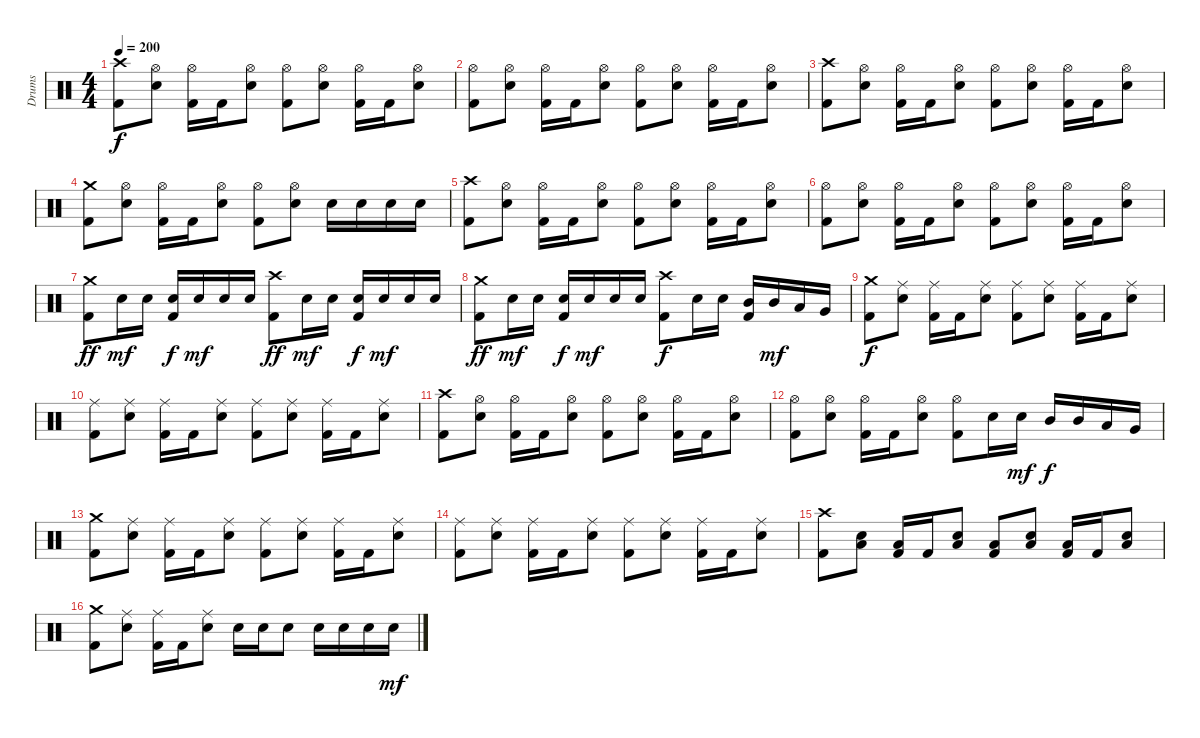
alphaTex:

\track ("Drums" "Drums") {instrument percussion}
\staff {score}
\articulation defaults
\ts (4 4)
\tempo 200
\clef neutral
\ks c
("Crash high (hit)" "Kick (hit) 2").8{dy f} ("Hi-Hat (open)" "Electric Snare (hit)").8 ("Hi-Hat (open)" "Kick (hit) 2").16 "Kick (hit) 2".16 ("Hi-Hat (open)" "Electric Snare (hit)").8 ("Hi-Hat (open)" "Kick (hit) 2").8 ("Hi-Hat (open)" "Electric Snare (hit)").8 ("Hi-Hat (open)" "Kick (hit) 2").16 "Kick (hit) 2".16 ("Hi-Hat (open)" "Electric Snare (hit)").8 |
("Hi-Hat (open)" "Kick (hit) 2").8 ("Hi-Hat (open)" "Electric Snare (hit)").8 ("Hi-Hat (open)" "Kick (hit) 2").16 "Kick (hit) 2".16 ("Hi-Hat (open)" "Electric Snare (hit)").8 ("Hi-Hat (open)" "Kick (hit) 2").8 ("Hi-Hat (open)" "Electric Snare (hit)").8 ("Hi-Hat (open)" "Kick (hit) 2").16 "Kick (hit) 2".16 ("Hi-Hat (open)" "Electric Snare (hit)").8 |
("Crash high (hit)" "Kick (hit) 2").8 ("Hi-Hat (open)" "Electric Snare (hit)").8 ("Hi-Hat (open)" "Kick (hit) 2").16 "Kick (hit) 2".16 ("Hi-Hat (open)" "Electric Snare (hit)").8 ("Hi-Hat (open)" "Kick (hit) 2").8 ("Hi-Hat (open)" "Electric Snare (hit)").8 ("Hi-Hat (open)" "Kick (hit) 2").16 "Kick (hit) 2".16 ("Hi-Hat (open)" "Electric Snare (hit)").8 |
("Crash medium (hit)" "Kick (hit) 2").8 ("Hi-Hat (open)" "Electric Snare (hit)").8 ("Hi-Hat (open)" "Kick (hit) 2").16 "Kick (hit) 2".16 ("Hi-Hat (open)" "Electric Snare (hit)").8 ("Hi-Hat (open)" "Kick (hit) 2").8 ("Hi-Hat (open)" "Electric Snare (hit)").8 "Electric Snare (hit)".16 "Electric Snare (hit)".16 "Electric Snare (hit)".16 "Electric Snare (hit)".16 |
("Crash high (hit)" "Kick (hit) 2").8 ("Hi-Hat (open)" "Electric Snare (hit)").8 ("Hi-Hat (open)" "Kick (hit) 2").16 "Kick (hit) 2".16 ("Hi-Hat (open)" "Electric Snare (hit)").8 ("Hi-Hat (open)" "Kick (hit) 2").8 ("Hi-Hat (open)" "Electric Snare (hit)").8 ("Hi-Hat (open)" "Kick (hit) 2").16 "Kick (hit) 2".16 ("Hi-Hat (open)" "Electric Snare (hit)").8 |
("Hi-Hat (open)" "Kick (hit) 2").8 ("Hi-Hat (open)" "Electric Snare (hit)").8 ("Hi-Hat (open)" "Kick (hit) 2").16 "Kick (hit) 2".16 ("Hi-Hat (open)" "Electric Snare (hit)").8 ("Hi-Hat (open)" "Kick (hit) 2").8 ("Hi-Hat (open)" "Electric Snare (hit)").8 ("Hi-Hat (open)" "Kick (hit) 2").16 "Kick (hit) 2".16 ("Hi-Hat (open)" "Electric Snare (hit)").8 |
("Crash medium (hit)" "Kick (hit) 2").8{dy ff} "Electric Snare (hit)".16{dy mf} "Electric Snare (hit)".16 ("Electric Snare (hit)" "Kick (hit) 2").16{dy f} "Electric Snare (hit)".16{dy mf} "Electric Snare (hit)".16 "Electric Snare (hit)".16 ("Crash high (hit)" "Kick (hit) 2").8{dy ff} "Electric Snare (hit)".16{dy mf} "Electric Snare (hit)".16 ("Electric Snare (hit)" "Kick (hit) 2").16{dy f} "Electric Snare (hit)".16{dy mf} "Electric Snare (hit)".16 "Electric Snare (hit)".16 |
("Crash medium (hit)" "Kick (hit) 2").8{dy ff} "Electric Snare (hit)".16{dy mf} "Electric Snare (hit)".16 ("Electric Snare (hit)" "Kick (hit) 2").16{dy f} "Electric Snare (hit)".16{dy mf} "Electric Snare (hit)".16 "Electric Snare (hit)".16 ("Crash high (hit)" "Kick (hit) 2").8{dy f} "Electric Snare (hit)".16 "Electric Snare (hit)".16 ("Mid Tom (hit)" "Kick (hit) 2").16 "Mid Tom (hit)".16{dy mf} "Low Tom (hit)".16 "Very Low Tom (hit)".16 |
("Crash medium (hit)" "Kick (hit) 2").8{dy f} ("Ride (middle)" "Electric Snare (hit)").8 ("Ride (middle)" "Kick (hit) 2").16 "Kick (hit) 2".16 ("Ride (middle)" "Electric Snare (hit)").8 ("Ride (middle)" "Kick (hit) 2").8 ("Ride (middle)" "Electric Snare (hit)").8 ("Ride (middle)" "Kick (hit) 2").16 "Kick (hit) 2".16 ("Ride (middle)" "Electric Snare (hit)").8 |
("Ride (middle)" "Kick (hit) 2").8 ("Ride (middle)" "Electric Snare (hit)").8 ("Ride (middle)" "Kick (hit) 2").16 "Kick (hit) 2".16 ("Ride (middle)" "Electric Snare (hit)").8 ("Ride (middle)" "Kick (hit) 2").8 ("Ride (middle)" "Electric Snare (hit)").8 ("Ride (middle)" "Kick (hit) 2").16 "Kick (hit) 2".16 ("Ride (middle)" "Electric Snare (hit)").8 |
("Crash high (hit)" "Kick (hit) 2").8 ("Hi-Hat (open)" "Electric Snare (hit)").8 ("Hi-Hat (open)" "Kick (hit) 2").16 "Kick (hit) 2".16 ("Hi-Hat (open)" "Electric Snare (hit)").8 ("Hi-Hat (open)" "Kick (hit) 2").8 ("Hi-Hat (open)" "Electric Snare (hit)").8 ("Hi-Hat (open)" "Kick (hit) 2").16 "Kick (hit) 2".16 ("Hi-Hat (open)" "Electric Snare (hit)").8 |
("Hi-Hat (open)" "Kick (hit) 2").8 ("Hi-Hat (open)" "Electric Snare (hit)").8 ("Hi-Hat (open)" "Kick (hit) 2").16 "Kick (hit) 2".16 ("Hi-Hat (open)" "Electric Snare (hit)").8 ("Hi-Hat (open)" "Kick (hit) 2").8 "Electric Snare (hit)".16 "Electric Snare (hit)".16{dy mf} "Mid Tom (hit)".16{dy f} "Mid Tom (hit)".16 "Low Tom (hit)".16 "Very Low Tom (hit)".16 |
("Crash medium (hit)" "Kick (hit) 2").8 ("Ride (middle)" "Electric Snare (hit)").8 ("Ride (middle)" "Kick (hit) 2").16 "Kick (hit) 2".16 ("Ride (middle)" "Electric Snare (hit)").8 ("Ride (middle)" "Kick (hit) 2").8 ("Ride (middle)" "Electric Snare (hit)").8 ("Ride (middle)" "Kick (hit) 2").16 "Kick (hit) 2".16 ("Ride (middle)" "Electric Snare (hit)").8 |
("Ride (middle)" "Kick (hit) 2").8 ("Ride (middle)" "Electric Snare (hit)").8 ("Ride (middle)" "Kick (hit) 2").16 "Kick (hit) 2".16 ("Ride (middle)" "Electric Snare (hit)").8 ("Ride (middle)" "Kick (hit) 2").8 ("Ride (middle)" "Electric Snare (hit)").8 ("Ride (middle)" "Kick (hit) 2").16 "Kick (hit) 2".16 ("Ride (middle)" "Electric Snare (hit)").8 |
("Crash high (hit)" "Kick (hit) 2").8 ("Low Floor Tom (hit)" "Electric Snare (hit)").8 ("Low Floor Tom (hit)" "Kick (hit) 2").16 "Kick (hit) 2".16 ("Low Floor Tom (hit)" "Electric Snare (hit)").8 ("Low Floor Tom (hit)" "Kick (hit) 2").8 ("Low Floor Tom (hit)" "Electric Snare (hit)").8 ("Low Floor Tom (hit)" "Kick (hit) 2").16 "Kick (hit) 2".16 ("Low Floor Tom (hit)" "Electric Snare (hit)").8 |
("Crash medium (hit)" "Kick (hit) 2").8 ("Ride (middle)" "Electric Snare (hit)").8 ("Ride (middle)" "Kick (hit) 2").16 "Kick (hit) 2".16 ("Ride (middle)" "Electric Snare (hit)").8 "Electric Snare (hit)".16 "Electric Snare (hit)".16 "Electric Snare (hit)".8 "Electric Snare (hit)".16 "Electric Snare (hit)".16 "Electric Snare (hit)".16 "Electric Snare (hit)".16{dy mf}
